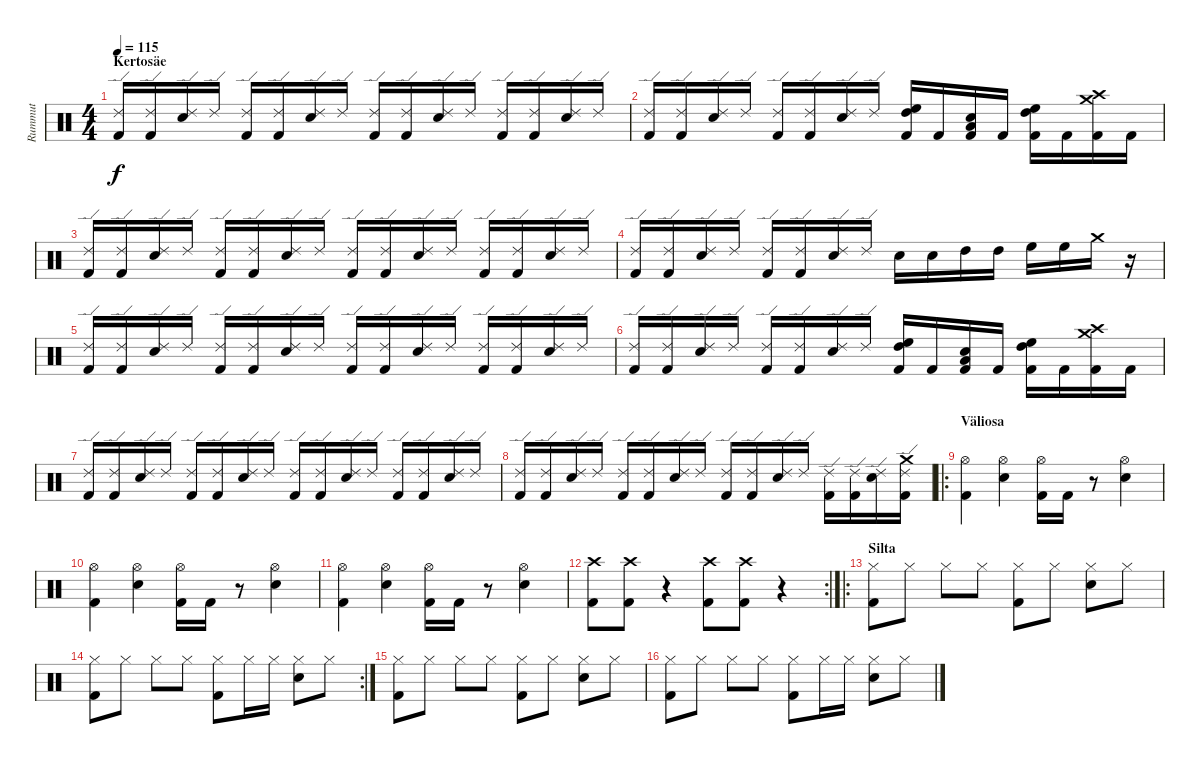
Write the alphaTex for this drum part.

\track ("Rummut" "Rummut") {instrument percussion}
\staff {score}
\articulation defaults
\ts (4 4)
\section ("" "Kertosäe")
\tempo 115
\clef neutral
\ks c
("Ride (edge) 2" "Kick (hit) 2").16{dy f} ("Ride (edge) 2" "Kick (hit) 2").16 ("Snare (hit) 2" "Ride (edge) 2").16 "Ride (edge) 2".16 ("Ride (edge) 2" "Kick (hit) 2").16 ("Ride (edge) 2" "Kick (hit) 2").16 ("Snare (hit) 2" "Ride (edge) 2").16 "Ride (edge) 2".16 ("Ride (edge) 2" "Kick (hit) 2").16 ("Ride (edge) 2" "Kick (hit) 2").16 ("Snare (hit) 2" "Ride (edge) 2").16 "Ride (edge) 2".16 ("Ride (edge) 2" "Kick (hit) 2").16 ("Ride (edge) 2" "Kick (hit) 2").16 ("Snare (hit) 2" "Ride (edge) 2").16 "Ride (edge) 2".16 |
("Ride (edge) 2" "Kick (hit) 2").16 ("Ride (edge) 2" "Kick (hit) 2").16 ("Snare (hit) 2" "Ride (edge) 2").16 "Ride (edge) 2".16 ("Ride (edge) 2" "Kick (hit) 2").16 ("Ride (edge) 2" "Kick (hit) 2").16 ("Snare (hit) 2" "Ride (edge) 2").16 "Ride (edge) 2".16 ("High Floor Tom (hit)" "High Tom (hit)" "Kick (hit) 2").16 "Kick (hit) 2".16 ("Snare (hit) 2" "Low Tom (hit)" "Kick (hit) 2").16 "Kick (hit) 2".16 ("High Floor Tom (hit)" "High Tom (hit)" "Kick (hit) 2").16 "Kick (hit) 2".16 ("Crash high (hit)" "Crash medium (hit)" "Kick (hit) 2").16 "Kick (hit) 2".16 |
("Ride (edge) 2" "Kick (hit) 2").16 ("Ride (edge) 2" "Kick (hit) 2").16 ("Snare (hit) 2" "Ride (edge) 2").16 "Ride (edge) 2".16 ("Ride (edge) 2" "Kick (hit) 2").16 ("Ride (edge) 2" "Kick (hit) 2").16 ("Snare (hit) 2" "Ride (edge) 2").16 "Ride (edge) 2".16 ("Ride (edge) 2" "Kick (hit) 2").16 ("Ride (edge) 2" "Kick (hit) 2").16 ("Snare (hit) 2" "Ride (edge) 2").16 "Ride (edge) 2".16 ("Ride (edge) 2" "Kick (hit) 2").16 ("Ride (edge) 2" "Kick (hit) 2").16 ("Snare (hit) 2" "Ride (edge) 2").16 "Ride (edge) 2".16 |
("Ride (edge) 2" "Kick (hit) 2").16 ("Ride (edge) 2" "Kick (hit) 2").16 ("Snare (hit) 2" "Ride (edge) 2").16 "Ride (edge) 2".16 ("Ride (edge) 2" "Kick (hit) 2").16 ("Ride (edge) 2" "Kick (hit) 2").16 ("Snare (hit) 2" "Ride (edge) 2").16 "Ride (edge) 2".16 "Snare (hit) 2".16 "Snare (hit) 2".16 "High Tom (hit)".16 "High Tom (hit)".16 "High Floor Tom (hit)".16 "High Floor Tom (hit)".16 "Crash medium (hit)".16 r.16 |
("Ride (edge) 2" "Kick (hit) 2").16 ("Ride (edge) 2" "Kick (hit) 2").16 ("Snare (hit) 2" "Ride (edge) 2").16 "Ride (edge) 2".16 ("Ride (edge) 2" "Kick (hit) 2").16 ("Ride (edge) 2" "Kick (hit) 2").16 ("Snare (hit) 2" "Ride (edge) 2").16 "Ride (edge) 2".16 ("Ride (edge) 2" "Kick (hit) 2").16 ("Ride (edge) 2" "Kick (hit) 2").16 ("Snare (hit) 2" "Ride (edge) 2").16 "Ride (edge) 2".16 ("Ride (edge) 2" "Kick (hit) 2").16 ("Ride (edge) 2" "Kick (hit) 2").16 ("Snare (hit) 2" "Ride (edge) 2").16 "Ride (edge) 2".16 |
("Ride (edge) 2" "Kick (hit) 2").16 ("Ride (edge) 2" "Kick (hit) 2").16 ("Snare (hit) 2" "Ride (edge) 2").16 "Ride (edge) 2".16 ("Ride (edge) 2" "Kick (hit) 2").16 ("Ride (edge) 2" "Kick (hit) 2").16 ("Snare (hit) 2" "Ride (edge) 2").16 "Ride (edge) 2".16 ("High Floor Tom (hit)" "High Tom (hit)" "Kick (hit) 2").16 "Kick (hit) 2".16 ("Low Tom (hit)" "Snare (hit) 2" "Kick (hit) 2").16 "Kick (hit) 2".16 ("High Floor Tom (hit)" "High Tom (hit)" "Kick (hit) 2").16 "Kick (hit) 2".16 ("Crash medium (hit)" "Crash high (hit)" "Kick (hit) 2").16 "Kick (hit) 2".16 |
("Ride (edge) 2" "Kick (hit) 2").16 ("Ride (edge) 2" "Kick (hit) 2").16 ("Snare (hit) 2" "Ride (edge) 2").16 "Ride (edge) 2".16 ("Ride (edge) 2" "Kick (hit) 2").16 ("Ride (edge) 2" "Kick (hit) 2").16 ("Snare (hit) 2" "Ride (edge) 2").16 "Ride (edge) 2".16 ("Ride (edge) 2" "Kick (hit) 2").16 ("Ride (edge) 2" "Kick (hit) 2").16 ("Snare (hit) 2" "Ride (edge) 2").16 "Ride (edge) 2".16 ("Ride (edge) 2" "Kick (hit) 2").16 ("Ride (edge) 2" "Kick (hit) 2").16 ("Snare (hit) 2" "Ride (edge) 2").16 "Ride (edge) 2".16 |
("Ride (edge) 2" "Kick (hit) 2").16 ("Ride (edge) 2" "Kick (hit) 2").16 ("Snare (hit) 2" "Ride (edge) 2").16 "Ride (edge) 2".16 ("Ride (edge) 2" "Kick (hit) 2").16 ("Ride (edge) 2" "Kick (hit) 2").16 ("Snare (hit) 2" "Ride (edge) 2").16 "Ride (edge) 2".16 ("Ride (edge) 2" "Kick (hit) 2").16 ("Ride (edge) 2" "Kick (hit) 2").16 ("Snare (hit) 2" "Ride (edge) 2").16 "Ride (edge) 2".16 ("Ride (edge) 2" "Kick (hit) 2").16 ("Ride (edge) 2" "Kick (hit) 2").16 ("Snare (hit) 2" "Ride (edge) 2").16 ("Crash medium (hit)" "Ride (edge) 2" "Kick (hit) 2").16 |
\ro
\section ("" "Väliosa")
("Hi-Hat (open)" "Kick (hit) 2").4 ("Snare (hit) 2" "Hi-Hat (open)").4 ("Hi-Hat (open)" "Kick (hit) 2").16 "Kick (hit) 2".16 r.8 ("Snare (hit) 2" "Hi-Hat (open)").4 |
("Hi-Hat (open)" "Kick (hit) 2").4 ("Snare (hit) 2" "Hi-Hat (open)").4 ("Hi-Hat (open)" "Kick (hit) 2").16 "Kick (hit) 2".16 r.8 ("Snare (hit) 2" "Hi-Hat (open)").4 |
("Hi-Hat (open)" "Kick (hit) 2").4 ("Snare (hit) 2" "Hi-Hat (open)").4 ("Hi-Hat (open)" "Kick (hit) 2").16 "Kick (hit) 2".16 r.8 ("Snare (hit) 2" "Hi-Hat (open)").4 |
\rc 2
("Crash high (hit)" "Kick (hit) 2").8 ("Crash high (hit)" "Kick (hit) 2").8 r.4 ("Crash high (hit)" "Kick (hit) 2").8 ("Crash high (hit)" "Kick (hit) 2").8 r.4 |
\ro
\section ("" "Silta")
("Hi-Hat (closed)" "Kick (hit) 2").8 "Hi-Hat (closed)".8 "Hi-Hat (closed)".8 "Hi-Hat (closed)".8 ("Hi-Hat (closed)" "Kick (hit) 2").8 "Hi-Hat (closed)".8 ("Snare (hit) 2" "Hi-Hat (closed)").8 "Hi-Hat (closed)".8 |
\rc 2
("Hi-Hat (closed)" "Kick (hit) 2").8 "Hi-Hat (closed)".8 "Hi-Hat (closed)".8 "Hi-Hat (closed)".8 ("Hi-Hat (closed)" "Kick (hit) 2").8 "Hi-Hat (closed)".16 "Hi-Hat (closed)".16 ("Snare (hit) 2" "Hi-Hat (closed)").8 "Hi-Hat (closed)".8 |
("Hi-Hat (closed)" "Kick (hit) 2").8 "Hi-Hat (closed)".8 "Hi-Hat (closed)".8 "Hi-Hat (closed)".8 ("Hi-Hat (closed)" "Kick (hit) 2").8 "Hi-Hat (closed)".8 ("Snare (hit) 2" "Hi-Hat (closed)").8 "Hi-Hat (closed)".8 |
("Hi-Hat (closed)" "Kick (hit) 2").8 "Hi-Hat (closed)".8 "Hi-Hat (closed)".8 "Hi-Hat (closed)".8 ("Hi-Hat (closed)" "Kick (hit) 2").8 "Hi-Hat (closed)".16 "Hi-Hat (closed)".16 ("Snare (hit) 2" "Hi-Hat (closed)").8 "Hi-Hat (closed)".8
